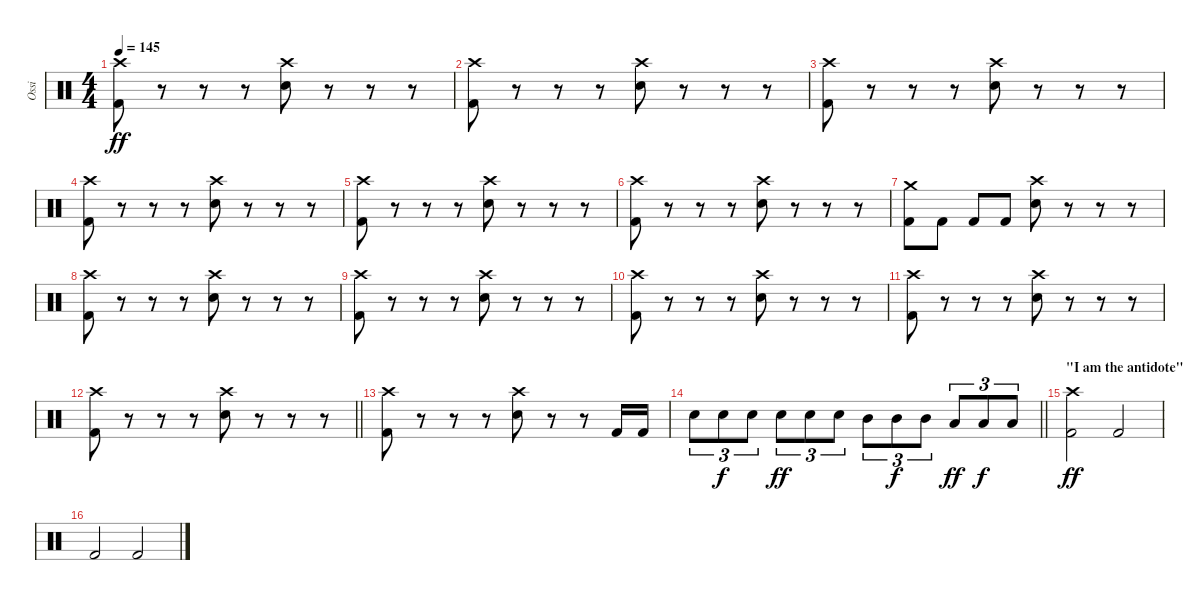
\track ("Ossi" "Ossi") {instrument percussion}
\staff {score}
\articulation defaults
\ts (4 4)
\tempo 145
\clef neutral
\ks c
("Crash high (hit)" "Kick (hit) 2").8{dy ff} r.8 r.8 r.8 ("Crash high (hit)" "Electric Snare (hit)").8 r.8 r.8 r.8 |
("Crash high (hit)" "Kick (hit) 2").8 r.8 r.8 r.8 ("Crash high (hit)" "Electric Snare (hit)").8 r.8 r.8 r.8 |
("Crash high (hit)" "Kick (hit) 2").8 r.8 r.8 r.8 ("Crash high (hit)" "Electric Snare (hit)").8 r.8 r.8 r.8 |
("Crash high (hit)" "Kick (hit) 2").8 r.8 r.8 r.8 ("Crash high (hit)" "Electric Snare (hit)").8 r.8 r.8 r.8 |
("Crash high (hit)" "Kick (hit) 2").8 r.8 r.8 r.8 ("Crash high (hit)" "Electric Snare (hit)").8 r.8 r.8 r.8 |
("Crash high (hit)" "Kick (hit) 2").8 r.8 r.8 r.8 ("Crash high (hit)" "Electric Snare (hit)").8 r.8 r.8 r.8 |
("Crash medium (hit)" "Kick (hit) 2").8 "Kick (hit) 2".8 "Kick (hit) 2".8 "Kick (hit) 2".8 ("Crash high (hit)" "Electric Snare (hit)").8 r.8 r.8 r.8 |
("Crash high (hit)" "Kick (hit) 2").8 r.8 r.8 r.8 ("Crash high (hit)" "Electric Snare (hit)").8 r.8 r.8 r.8 |
("Crash high (hit)" "Kick (hit) 2").8 r.8 r.8 r.8 ("Crash high (hit)" "Electric Snare (hit)").8 r.8 r.8 r.8 |
("Crash high (hit)" "Kick (hit) 2").8 r.8 r.8 r.8 ("Crash high (hit)" "Electric Snare (hit)").8 r.8 r.8 r.8 |
("Crash high (hit)" "Kick (hit) 2").8 r.8 r.8 r.8 ("Crash high (hit)" "Electric Snare (hit)").8 r.8 r.8 r.8 |
\barLineRight lightlight
("Crash high (hit)" "Kick (hit) 2").8 r.8 r.8 r.8 ("Crash high (hit)" "Electric Snare (hit)").8 r.8 r.8 r.8 |
("Crash high (hit)" "Kick (hit) 2").8 r.8 r.8 r.8 ("Crash high (hit)" "Electric Snare (hit)").8 r.8 r.8 "Kick (hit) 2".16 "Kick (hit) 2".16 |
\barLineRight lightlight "Electric Snare (hit)".8{tu (3 2)} "Electric Snare (hit)".8{tu (3 2) dy f} "Electric Snare (hit)".8{tu (3 2)} "Electric Snare (hit)".8{tu (3 2) dy ff} "Electric Snare (hit)".8{tu (3 2)} "Electric Snare (hit)".8{tu (3 2)} "Mid Tom (hit)".8{tu (3 2)} "Mid Tom (hit)".8{tu (3 2) dy f} "Mid Tom (hit)".8{tu (3 2)} "Low Tom (hit)".8{tu (3 2) dy ff} "Low Tom (hit)".8{tu (3 2) dy f} "Low Tom (hit)".8{tu (3 2)}
|
\section ("" "\"I am the antidote\"")
("Crash high (hit)" "Kick (hit) 2").2{dy ff} "Kick (hit) 2".2 |
"Kick (hit) 2".2 "Kick (hit) 2".2
